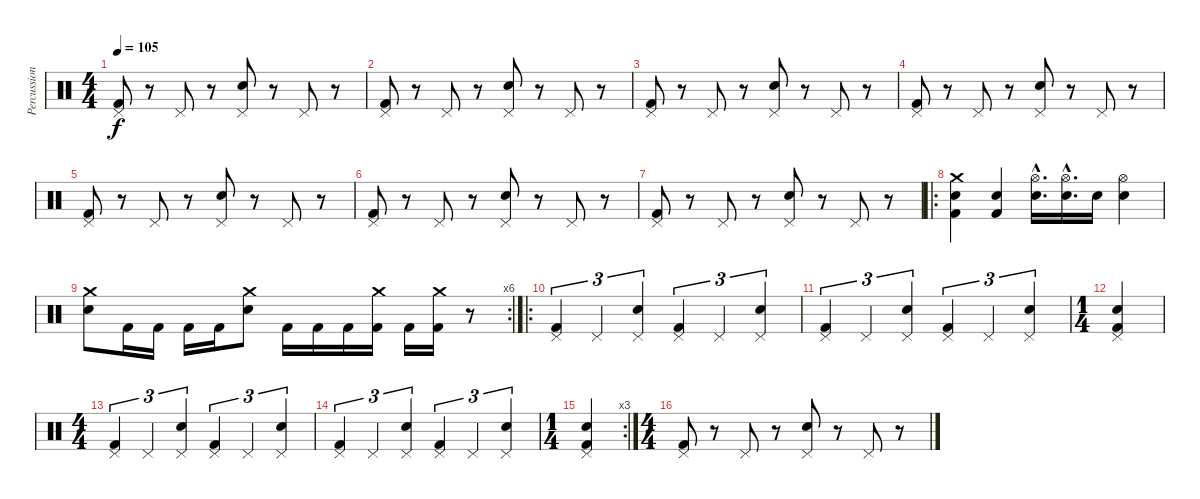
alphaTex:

\track ("Percussion" "Percussion") {instrument percussion}
\staff {score}
\articulation defaults
\ts (4 4)
\tempo 105
\clef neutral
\ks c
("Pedal Hi-Hat (hit)" "Kick (hit) 2").8{dy f} r.8 "Pedal Hi-Hat (hit)".8 r.8 ("Pedal Hi-Hat (hit)" "Snare (hit) 2").8 r.8 "Pedal Hi-Hat (hit)".8 r.8 |
("Pedal Hi-Hat (hit)" "Kick (hit) 2").8 r.8 "Pedal Hi-Hat (hit)".8 r.8 ("Pedal Hi-Hat (hit)" "Snare (hit) 2").8 r.8 "Pedal Hi-Hat (hit)".8 r.8 |
("Pedal Hi-Hat (hit)" "Kick (hit) 2").8 r.8 "Pedal Hi-Hat (hit)".8 r.8 ("Pedal Hi-Hat (hit)" "Snare (hit) 2").8 r.8 "Pedal Hi-Hat (hit)".8 r.8 |
("Pedal Hi-Hat (hit)" "Kick (hit) 2").8 r.8 "Pedal Hi-Hat (hit)".8 r.8 ("Pedal Hi-Hat (hit)" "Snare (hit) 2").8 r.8 "Pedal Hi-Hat (hit)".8 r.8 |
("Pedal Hi-Hat (hit)" "Kick (hit) 2").8 r.8 "Pedal Hi-Hat (hit)".8 r.8 ("Pedal Hi-Hat (hit)" "Snare (hit) 2").8 r.8 "Pedal Hi-Hat (hit)".8 r.8 |
("Pedal Hi-Hat (hit)" "Kick (hit) 2").8 r.8 "Pedal Hi-Hat (hit)".8 r.8 ("Pedal Hi-Hat (hit)" "Snare (hit) 2").8 r.8 "Pedal Hi-Hat (hit)".8 r.8 |
("Pedal Hi-Hat (hit)" "Kick (hit) 2").8 r.8 "Pedal Hi-Hat (hit)".8 r.8 ("Pedal Hi-Hat (hit)" "Snare (hit) 2").8 r.8 "Pedal Hi-Hat (hit)".8 r.8 |
\ro
("Crash medium (hit)" "Snare (hit) 2" "Kick (hit) 2").4 ("Snare (hit) 2" "Kick (hit) 2").4 ("Hi-Hat (open)"{hac} "Snare (hit) 2"{hac}).16{d} ("Hi-Hat (open)"{hac} "Snare (hit) 2"{hac}).16{d} "Snare (hit) 2".16 ("Hi-Hat (open)" "Snare (hit) 2").4 |
\rc 6
("Crash medium (hit)" "Snare (hit) 2").8 "Kick (hit) 2".16 "Kick (hit) 2".16 "Kick (hit) 2".16 "Kick (hit) 2".16 ("Crash medium (hit)" "Snare (hit) 2").8 "Kick (hit) 2".16 "Kick (hit) 2".16 "Kick (hit) 2".16 ("Crash medium (hit)" "Kick (hit) 2").16 "Kick (hit) 2".16 ("Crash medium (hit)" "Kick (hit) 2").16 r.8 |
\ro
("Pedal Hi-Hat (hit)" "Kick (hit) 2").4{tu (3 2)} "Pedal Hi-Hat (hit)".4{tu (3 2)} ("Pedal Hi-Hat (hit)" "Snare (hit) 2").4{tu (3 2)} ("Pedal Hi-Hat (hit)" "Kick (hit) 2").4{tu (3 2)} "Pedal Hi-Hat (hit)".4{tu (3 2)} ("Pedal Hi-Hat (hit)" "Snare (hit) 2").4{tu (3 2)} |
("Pedal Hi-Hat (hit)" "Kick (hit) 2").4{tu (3 2)} "Pedal Hi-Hat (hit)".4{tu (3 2)} ("Pedal Hi-Hat (hit)" "Snare (hit) 2").4{tu (3 2)} ("Pedal Hi-Hat (hit)" "Kick (hit) 2").4{tu (3 2)} "Pedal Hi-Hat (hit)".4{tu (3 2)} ("Pedal Hi-Hat (hit)" "Snare (hit) 2").4{tu (3 2)} |
\ts (1 4)
("Pedal Hi-Hat (hit)" "Snare (hit) 2" "Kick (hit) 2").4 |
\ts (4 4)
("Pedal Hi-Hat (hit)" "Kick (hit) 2").4{tu (3 2)} "Pedal Hi-Hat (hit)".4{tu (3 2)} ("Pedal Hi-Hat (hit)" "Snare (hit) 2").4{tu (3 2)} ("Pedal Hi-Hat (hit)" "Kick (hit) 2").4{tu (3 2)} "Pedal Hi-Hat (hit)".4{tu (3 2)} ("Pedal Hi-Hat (hit)" "Snare (hit) 2").4{tu (3 2)} |
("Pedal Hi-Hat (hit)" "Kick (hit) 2").4{tu (3 2)} "Pedal Hi-Hat (hit)".4{tu (3 2)} ("Pedal Hi-Hat (hit)" "Snare (hit) 2").4{tu (3 2)} ("Pedal Hi-Hat (hit)" "Kick (hit) 2").4{tu (3 2)} "Pedal Hi-Hat (hit)".4{tu (3 2)} ("Pedal Hi-Hat (hit)" "Snare (hit) 2").4{tu (3 2)} |
\rc 3
\ts (1 4)
("Pedal Hi-Hat (hit)" "Snare (hit) 2" "Kick (hit) 2").4 |
\ts (4 4)
("Pedal Hi-Hat (hit)" "Kick (hit) 2").8 r.8 "Pedal Hi-Hat (hit)".8 r.8 ("Pedal Hi-Hat (hit)" "Snare (hit) 2").8 r.8 "Pedal Hi-Hat (hit)".8 r.8
